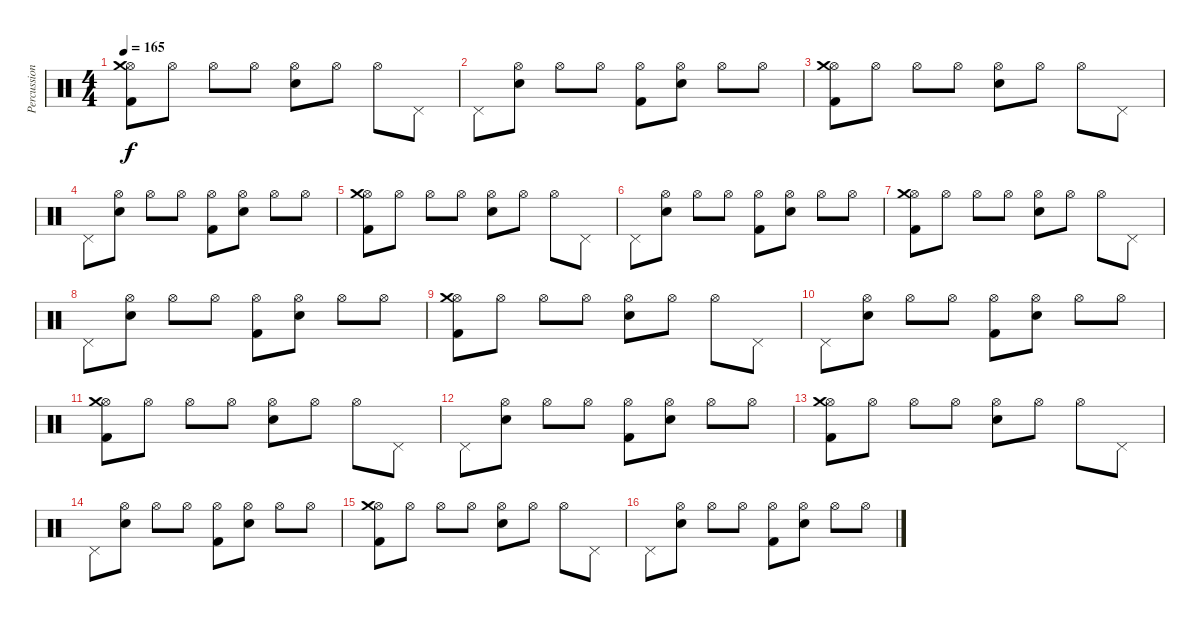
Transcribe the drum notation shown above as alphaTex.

\track ("Percussion" "Percussion") {instrument percussion}
\staff {score}
\articulation defaults
\ts (4 4)
\tempo 165
\clef neutral
\ks c
("Hi-Hat (open)" "Crash medium (hit)" "Kick (hit) 2").8{dy f} "Hi-Hat (open)".8 "Hi-Hat (open)".8 "Hi-Hat (open)".8 ("Hi-Hat (open)" "Electric Snare (hit)").8 "Hi-Hat (open)".8 "Hi-Hat (open)".8 "Pedal Hi-Hat (hit)".8 |
"Pedal Hi-Hat (hit)".8 ("Hi-Hat (open)" "Electric Snare (hit)").8 "Hi-Hat (open)".8 "Hi-Hat (open)".8 ("Hi-Hat (open)" "Kick (hit) 2").8 ("Hi-Hat (open)" "Electric Snare (hit)").8 "Hi-Hat (open)".8 "Hi-Hat (open)".8 |
("Hi-Hat (open)" "Crash medium (hit)" "Kick (hit) 2").8 "Hi-Hat (open)".8 "Hi-Hat (open)".8 "Hi-Hat (open)".8 ("Hi-Hat (open)" "Electric Snare (hit)").8 "Hi-Hat (open)".8 "Hi-Hat (open)".8 "Pedal Hi-Hat (hit)".8 |
"Pedal Hi-Hat (hit)".8 ("Hi-Hat (open)" "Electric Snare (hit)").8 "Hi-Hat (open)".8 "Hi-Hat (open)".8 ("Hi-Hat (open)" "Kick (hit) 2").8 ("Hi-Hat (open)" "Electric Snare (hit)").8 "Hi-Hat (open)".8 "Hi-Hat (open)".8 |
("Hi-Hat (open)" "Crash medium (hit)" "Kick (hit) 2").8 "Hi-Hat (open)".8 "Hi-Hat (open)".8 "Hi-Hat (open)".8 ("Hi-Hat (open)" "Electric Snare (hit)").8 "Hi-Hat (open)".8 "Hi-Hat (open)".8 "Pedal Hi-Hat (hit)".8 |
"Pedal Hi-Hat (hit)".8 ("Hi-Hat (open)" "Electric Snare (hit)").8 "Hi-Hat (open)".8 "Hi-Hat (open)".8 ("Hi-Hat (open)" "Kick (hit) 2").8 ("Hi-Hat (open)" "Electric Snare (hit)").8 "Hi-Hat (open)".8 "Hi-Hat (open)".8 |
("Hi-Hat (open)" "Crash medium (hit)" "Kick (hit) 2").8 "Hi-Hat (open)".8 "Hi-Hat (open)".8 "Hi-Hat (open)".8 ("Hi-Hat (open)" "Electric Snare (hit)").8 "Hi-Hat (open)".8 "Hi-Hat (open)".8 "Pedal Hi-Hat (hit)".8 |
"Pedal Hi-Hat (hit)".8 ("Hi-Hat (open)" "Electric Snare (hit)").8 "Hi-Hat (open)".8 "Hi-Hat (open)".8 ("Hi-Hat (open)" "Kick (hit) 2").8 ("Hi-Hat (open)" "Electric Snare (hit)").8 "Hi-Hat (open)".8 "Hi-Hat (open)".8 |
("Hi-Hat (open)" "Crash medium (hit)" "Kick (hit) 2").8 "Hi-Hat (open)".8 "Hi-Hat (open)".8 "Hi-Hat (open)".8 ("Hi-Hat (open)" "Electric Snare (hit)").8 "Hi-Hat (open)".8 "Hi-Hat (open)".8 "Pedal Hi-Hat (hit)".8 |
"Pedal Hi-Hat (hit)".8 ("Hi-Hat (open)" "Electric Snare (hit)").8 "Hi-Hat (open)".8 "Hi-Hat (open)".8 ("Hi-Hat (open)" "Kick (hit) 2").8 ("Hi-Hat (open)" "Electric Snare (hit)").8 "Hi-Hat (open)".8 "Hi-Hat (open)".8 |
("Hi-Hat (open)" "Crash medium (hit)" "Kick (hit) 2").8 "Hi-Hat (open)".8 "Hi-Hat (open)".8 "Hi-Hat (open)".8 ("Hi-Hat (open)" "Electric Snare (hit)").8 "Hi-Hat (open)".8 "Hi-Hat (open)".8 "Pedal Hi-Hat (hit)".8 |
"Pedal Hi-Hat (hit)".8 ("Hi-Hat (open)" "Electric Snare (hit)").8 "Hi-Hat (open)".8 "Hi-Hat (open)".8 ("Hi-Hat (open)" "Kick (hit) 2").8 ("Hi-Hat (open)" "Electric Snare (hit)").8 "Hi-Hat (open)".8 "Hi-Hat (open)".8 |
("Hi-Hat (open)" "Crash medium (hit)" "Kick (hit) 2").8 "Hi-Hat (open)".8 "Hi-Hat (open)".8 "Hi-Hat (open)".8 ("Hi-Hat (open)" "Electric Snare (hit)").8 "Hi-Hat (open)".8 "Hi-Hat (open)".8 "Pedal Hi-Hat (hit)".8 |
"Pedal Hi-Hat (hit)".8 ("Hi-Hat (open)" "Electric Snare (hit)").8 "Hi-Hat (open)".8 "Hi-Hat (open)".8 ("Hi-Hat (open)" "Kick (hit) 2").8 ("Hi-Hat (open)" "Electric Snare (hit)").8 "Hi-Hat (open)".8 "Hi-Hat (open)".8 |
("Hi-Hat (open)" "Crash medium (hit)" "Kick (hit) 2").8 "Hi-Hat (open)".8 "Hi-Hat (open)".8 "Hi-Hat (open)".8 ("Hi-Hat (open)" "Electric Snare (hit)").8 "Hi-Hat (open)".8 "Hi-Hat (open)".8 "Pedal Hi-Hat (hit)".8 |
"Pedal Hi-Hat (hit)".8 ("Hi-Hat (open)" "Electric Snare (hit)").8 "Hi-Hat (open)".8 "Hi-Hat (open)".8 ("Hi-Hat (open)" "Kick (hit) 2").8 ("Hi-Hat (open)" "Electric Snare (hit)").8 "Hi-Hat (open)".8 "Hi-Hat (open)".8
